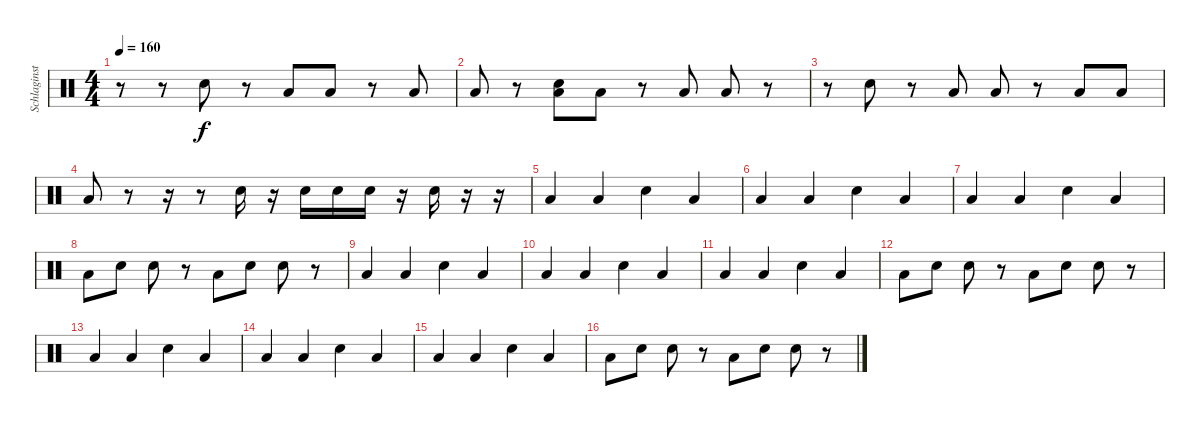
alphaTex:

\track ("Schlaginstrumente - Auswahl" "Schlaginst") {instrument percussion}
\staff {score}
\articulation defaults
\ts (4 4)
\tempo 160
\clef neutral
\ks c
r.8{dy f} r.8 "Snare (hit) 2".8 r.8 "Low Floor Tom (hit)".8 "Low Floor Tom (hit)".8 r.8 "Low Floor Tom (hit)".8 |
"Low Floor Tom (hit)".8 r.8 ("Snare (hit) 2" "Low Floor Tom (hit)").8 "Low Floor Tom (hit)".8 r.8 "Low Floor Tom (hit)".8 "Low Floor Tom (hit)".8 r.8 |
r.8 "Snare (hit) 2".8 r.8 "Low Floor Tom (hit)".8 "Low Floor Tom (hit)".8 r.8 "Low Floor Tom (hit)".8 "Low Floor Tom (hit)".8 |
"Low Floor Tom (hit)".8 r.8 r.16 r.8 "Electric Snare (hit)".16 r.16 "Electric Snare (hit)".16 "Electric Snare (hit)".16 "Electric Snare (hit)".16 r.16 "Electric Snare (hit)".16 r.16 r.16 |
"Low Floor Tom (hit)".4 "Low Floor Tom (hit)".4 "Snare (hit) 2".4 "Low Floor Tom (hit)".4 |
"Low Floor Tom (hit)".4 "Low Floor Tom (hit)".4 "Snare (hit) 2".4 "Low Floor Tom (hit)".4 |
"Low Floor Tom (hit)".4 "Low Floor Tom (hit)".4 "Snare (hit) 2".4 "Low Floor Tom (hit)".4 |
"Low Floor Tom (hit)".8 "Snare (hit) 2".8 "Snare (hit) 2".8 r.8 "Low Floor Tom (hit)".8 "Snare (hit) 2".8 "Snare (hit) 2".8 r.8 |
"Low Floor Tom (hit)".4 "Low Floor Tom (hit)".4 "Snare (hit) 2".4 "Low Floor Tom (hit)".4 |
"Low Floor Tom (hit)".4 "Low Floor Tom (hit)".4 "Snare (hit) 2".4 "Low Floor Tom (hit)".4 |
"Low Floor Tom (hit)".4 "Low Floor Tom (hit)".4 "Snare (hit) 2".4 "Low Floor Tom (hit)".4 |
"Low Floor Tom (hit)".8 "Snare (hit) 2".8 "Snare (hit) 2".8 r.8 "Low Floor Tom (hit)".8 "Snare (hit) 2".8 "Snare (hit) 2".8 r.8 |
"Low Floor Tom (hit)".4 "Low Floor Tom (hit)".4 "Snare (hit) 2".4 "Low Floor Tom (hit)".4 |
"Low Floor Tom (hit)".4 "Low Floor Tom (hit)".4 "Snare (hit) 2".4 "Low Floor Tom (hit)".4 |
"Low Floor Tom (hit)".4 "Low Floor Tom (hit)".4 "Snare (hit) 2".4 "Low Floor Tom (hit)".4 |
"Low Floor Tom (hit)".8 "Snare (hit) 2".8 "Snare (hit) 2".8 r.8 "Low Floor Tom (hit)".8 "Snare (hit) 2".8 "Snare (hit) 2".8 r.8
